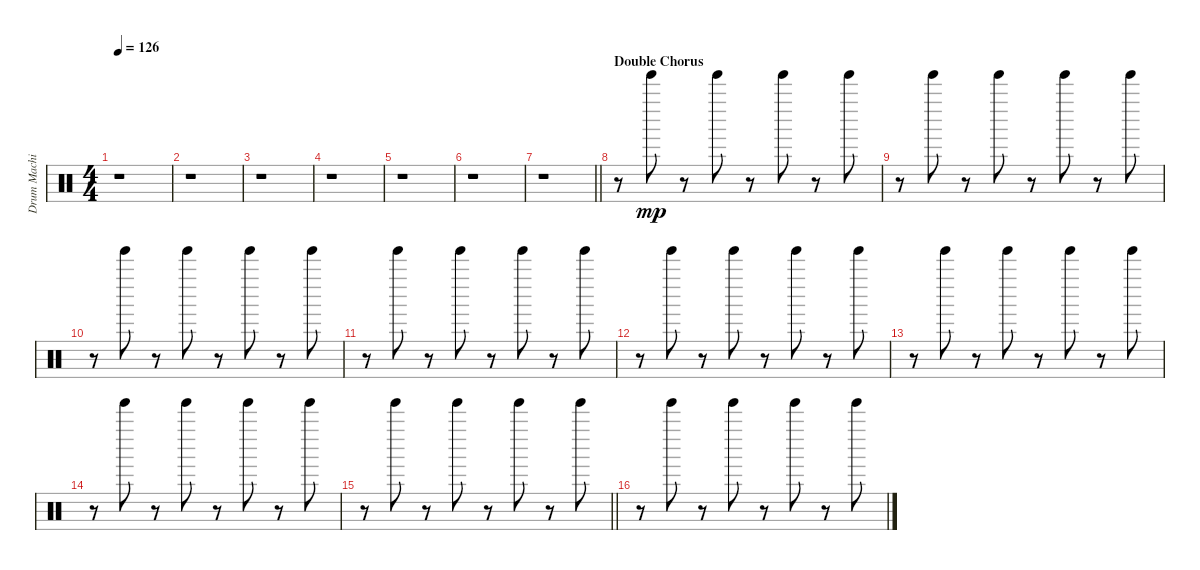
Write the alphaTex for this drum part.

\track ("Drum Machine" "Drum Machi") {instrument percussion}
\staff {score}
\articulation defaults
\ts (4 4)
\tempo 126
\clef neutral
\ks c
r.1{dy mp} |
r.1 |
r.1 |
r.1 |
r.1 |
r.1 |
\barLineRight lightlight
r.1 |
\section ("" "Double Chorus")
r.8 "Tinkle Bell (hit)".8 r.8 "Tinkle Bell (hit)".8 r.8 "Tinkle Bell (hit)".8 r.8 "Tinkle Bell (hit)".8 |
r.8 "Tinkle Bell (hit)".8 r.8 "Tinkle Bell (hit)".8 r.8 "Tinkle Bell (hit)".8 r.8 "Tinkle Bell (hit)".8 |
r.8 "Tinkle Bell (hit)".8 r.8 "Tinkle Bell (hit)".8 r.8 "Tinkle Bell (hit)".8 r.8 "Tinkle Bell (hit)".8 |
r.8 "Tinkle Bell (hit)".8 r.8 "Tinkle Bell (hit)".8 r.8 "Tinkle Bell (hit)".8 r.8 "Tinkle Bell (hit)".8 |
r.8 "Tinkle Bell (hit)".8 r.8 "Tinkle Bell (hit)".8 r.8 "Tinkle Bell (hit)".8 r.8 "Tinkle Bell (hit)".8 |
r.8 "Tinkle Bell (hit)".8 r.8 "Tinkle Bell (hit)".8 r.8 "Tinkle Bell (hit)".8 r.8 "Tinkle Bell (hit)".8 |
r.8 "Tinkle Bell (hit)".8 r.8 "Tinkle Bell (hit)".8 r.8 "Tinkle Bell (hit)".8 r.8 "Tinkle Bell (hit)".8 |
\barLineRight lightlight
r.8 "Tinkle Bell (hit)".8 r.8 "Tinkle Bell (hit)".8 r.8 "Tinkle Bell (hit)".8 r.8 "Tinkle Bell (hit)".8 |
r.8 "Tinkle Bell (hit)".8 r.8 "Tinkle Bell (hit)".8 r.8 "Tinkle Bell (hit)".8 r.8 "Tinkle Bell (hit)".8
